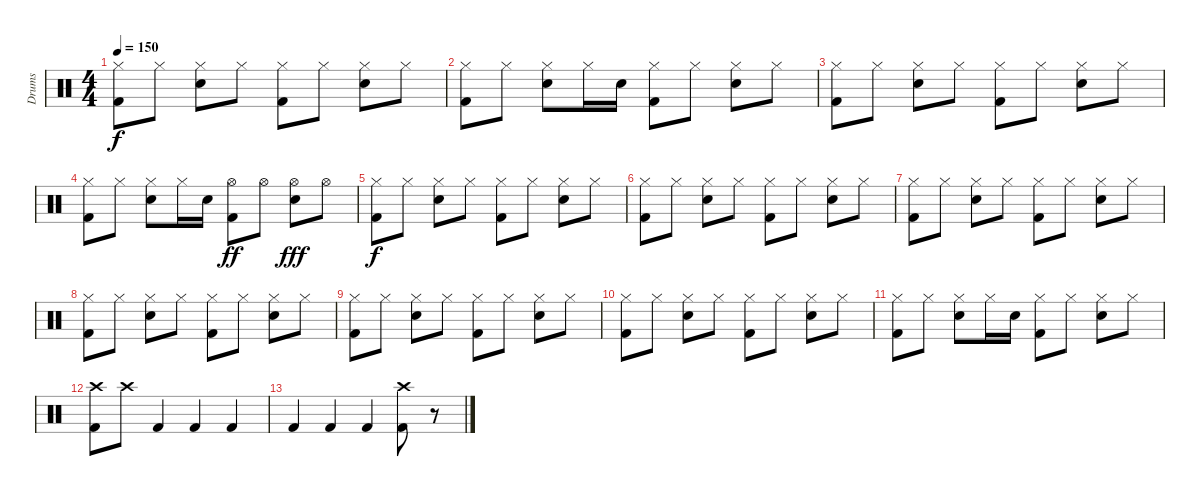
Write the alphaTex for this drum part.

\track ("Drums" "Drums") {instrument percussion}
\staff {score}
\articulation defaults
\ts (4 4)
\tempo 150
\clef neutral
\ks c
("Hi-Hat (closed)" "Kick (hit) 2").8{dy f} "Hi-Hat (closed)".8 ("Hi-Hat (closed)" "Snare (hit) 2").8 "Hi-Hat (closed)".8 ("Hi-Hat (closed)" "Kick (hit) 2").8 "Hi-Hat (closed)".8 ("Hi-Hat (closed)" "Snare (hit) 2").8 "Hi-Hat (closed)".8 |
("Hi-Hat (closed)" "Kick (hit) 2").8 "Hi-Hat (closed)".8 ("Hi-Hat (closed)" "Snare (hit) 2").8 "Hi-Hat (closed)".16 "Snare (hit) 2".16 ("Hi-Hat (closed)" "Kick (hit) 2").8 "Hi-Hat (closed)".8 ("Hi-Hat (closed)" "Snare (hit) 2").8 "Hi-Hat (closed)".8 |
("Hi-Hat (closed)" "Kick (hit) 2").8 "Hi-Hat (closed)".8 ("Hi-Hat (closed)" "Snare (hit) 2").8 "Hi-Hat (closed)".8 ("Hi-Hat (closed)" "Kick (hit) 2").8 "Hi-Hat (closed)".8 ("Hi-Hat (closed)" "Snare (hit) 2").8 "Hi-Hat (closed)".8 |
("Hi-Hat (closed)" "Kick (hit) 2").8 "Hi-Hat (closed)".8 ("Hi-Hat (closed)" "Snare (hit) 2").8 "Hi-Hat (closed)".16 "Snare (hit) 2".16 ("Hi-Hat (open)" "Kick (hit) 2").8{dy ff} "Hi-Hat (open)".8 ("Hi-Hat (open)" "Snare (hit) 2").8{dy fff} "Hi-Hat (open)".8 |
("Hi-Hat (closed)" "Kick (hit) 2").8{dy f} "Hi-Hat (closed)".8 ("Hi-Hat (closed)" "Snare (hit) 2").8 "Hi-Hat (closed)".8 ("Hi-Hat (closed)" "Kick (hit) 2").8 "Hi-Hat (closed)".8 ("Hi-Hat (closed)" "Snare (hit) 2").8 "Hi-Hat (closed)".8 |
("Hi-Hat (closed)" "Kick (hit) 2").8 "Hi-Hat (closed)".8 ("Hi-Hat (closed)" "Snare (hit) 2").8 "Hi-Hat (closed)".8 ("Hi-Hat (closed)" "Kick (hit) 2").8 "Hi-Hat (closed)".8 ("Hi-Hat (closed)" "Snare (hit) 2").8 "Hi-Hat (closed)".8 |
("Hi-Hat (closed)" "Kick (hit) 2").8 "Hi-Hat (closed)".8 ("Hi-Hat (closed)" "Snare (hit) 2").8 "Hi-Hat (closed)".8 ("Hi-Hat (closed)" "Kick (hit) 2").8 "Hi-Hat (closed)".8 ("Hi-Hat (closed)" "Snare (hit) 2").8 "Hi-Hat (closed)".8 |
("Hi-Hat (closed)" "Kick (hit) 2").8 "Hi-Hat (closed)".8 ("Hi-Hat (closed)" "Snare (hit) 2").8 "Hi-Hat (closed)".8 ("Hi-Hat (closed)" "Kick (hit) 2").8 "Hi-Hat (closed)".8 ("Hi-Hat (closed)" "Snare (hit) 2").8 "Hi-Hat (closed)".8 |
("Hi-Hat (closed)" "Kick (hit) 2").8 "Hi-Hat (closed)".8 ("Hi-Hat (closed)" "Snare (hit) 2").8 "Hi-Hat (closed)".8 ("Hi-Hat (closed)" "Kick (hit) 2").8 "Hi-Hat (closed)".8 ("Hi-Hat (closed)" "Snare (hit) 2").8 "Hi-Hat (closed)".8 |
("Hi-Hat (closed)" "Kick (hit) 2").8 "Hi-Hat (closed)".8 ("Hi-Hat (closed)" "Snare (hit) 2").8 "Hi-Hat (closed)".8 ("Hi-Hat (closed)" "Kick (hit) 2").8 "Hi-Hat (closed)".8 ("Hi-Hat (closed)" "Snare (hit) 2").8 "Hi-Hat (closed)".8 |
("Hi-Hat (closed)" "Kick (hit) 2").8 "Hi-Hat (closed)".8 ("Hi-Hat (closed)" "Snare (hit) 2").8 "Hi-Hat (closed)".16 "Snare (hit) 2".16 ("Hi-Hat (closed)" "Kick (hit) 2").8 "Hi-Hat (closed)".8 ("Hi-Hat (closed)" "Snare (hit) 2").8 "Hi-Hat (closed)".8 |
("Crash high (hit)" "Kick (hit) 2").8 "Crash high (hit)".8 "Kick (hit) 2".4 "Kick (hit) 2".4 "Kick (hit) 2".4 |
"Kick (hit) 2".4 "Kick (hit) 2".4 "Kick (hit) 2".4 ("Crash high (hit)" "Kick (hit) 2").8 r.8
